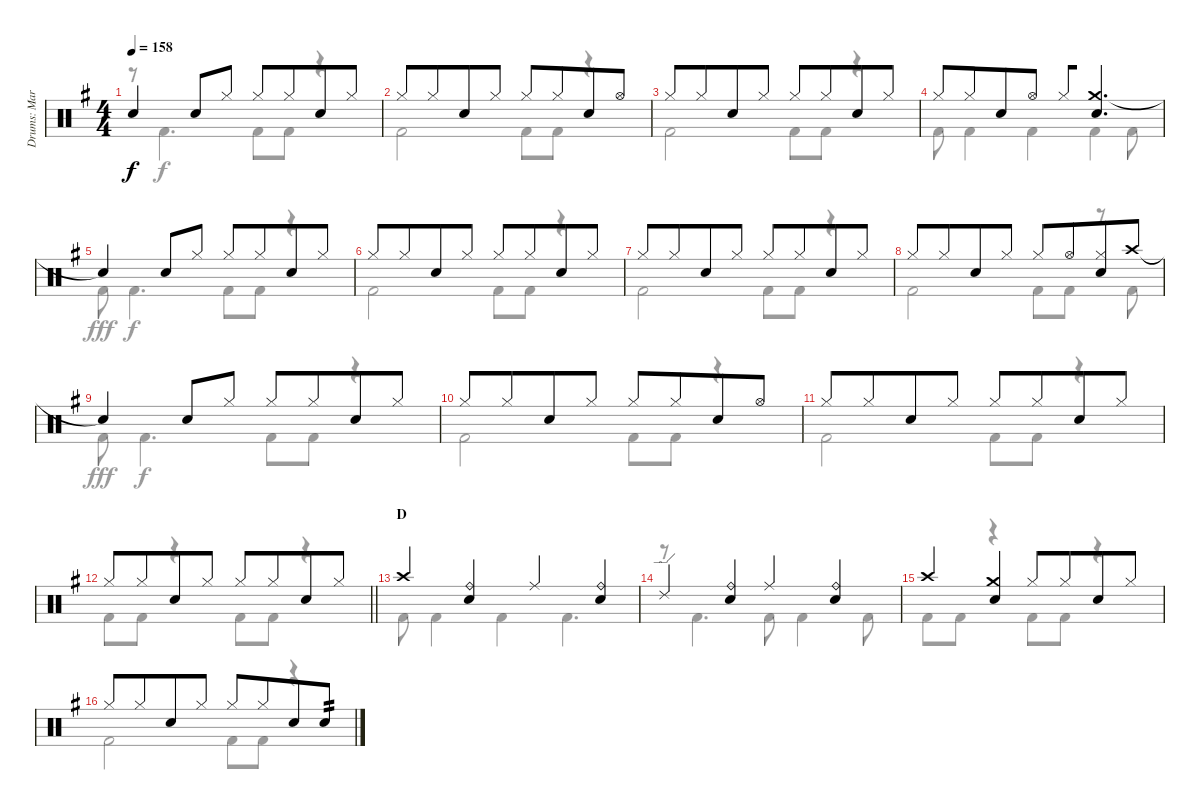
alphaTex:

\track ("Drums: Mark" "Drums: Mar") {instrument percussion}
\staff {score}
\articulation defaults
\voice
\ts (4 4)
\tempo 158
\clef neutral
\ks g "Snare (hit)"{t}.4{dy f} "Snare (hit) 2".8 "Hi-Hat (closed)".8 "Hi-Hat (closed)".8 "Hi-Hat (closed)".8{beam merge} "Snare (hit) 2".8 "Hi-Hat (closed)".8
|
"Hi-Hat (closed)".8 "Hi-Hat (closed)".8{beam merge} "Snare (hit) 2".8 "Hi-Hat (closed)".8 "Hi-Hat (closed)".8 "Hi-Hat (closed)".8{beam merge} "Snare (hit) 2".8 "Hi-Hat (open)".8 |
"Hi-Hat (closed)".8 "Hi-Hat (closed)".8{beam merge} "Snare (hit) 2".8 "Hi-Hat (closed)".8 "Hi-Hat (closed)".8 "Hi-Hat (closed)".8{beam merge} "Snare (hit) 2".8 "Hi-Hat (closed)".8 |
"Hi-Hat (closed)".8 "Hi-Hat (closed)".8{beam merge} "Snare (hit) 2".8 "Hi-Hat (open)".8 "Hi-Hat (closed)".8{beam merge} ("Crash medium (hit)" "Snare (hit) 2").4{d} |
"Snare (hit)"{t}.4 "Snare (hit) 2".8 "Hi-Hat (closed)".8 "Hi-Hat (closed)".8 "Hi-Hat (closed)".8{beam merge} "Snare (hit) 2".8 "Hi-Hat (closed)".8 |
"Hi-Hat (closed)".8 "Hi-Hat (closed)".8{beam merge} "Snare (hit) 2".8 "Hi-Hat (closed)".8 "Hi-Hat (closed)".8 "Hi-Hat (closed)".8{beam merge} "Snare (hit) 2".8 "Hi-Hat (closed)".8 |
"Hi-Hat (closed)".8 "Hi-Hat (closed)".8{beam merge} "Snare (hit) 2".8 "Hi-Hat (closed)".8 "Hi-Hat (closed)".8 "Hi-Hat (closed)".8{beam merge} "Snare (hit) 2".8 "Hi-Hat (closed)".8 |
"Hi-Hat (closed)".8 "Hi-Hat (closed)".8{beam merge} "Snare (hit) 2".8 "Hi-Hat (closed)".8 "Hi-Hat (closed)".8 "Hi-Hat (open)".8{beam merge} ("Hi-Hat (closed)" "Snare (hit) 2").8 "Crash high (hit)".8 |
"Snare (hit)"{t}.4 "Snare (hit) 2".8 "Hi-Hat (closed)".8 "Hi-Hat (closed)".8 "Hi-Hat (closed)".8{beam merge} "Snare (hit) 2".8 "Hi-Hat (closed)".8 |
"Hi-Hat (closed)".8 "Hi-Hat (closed)".8{beam merge} "Snare (hit) 2".8 "Hi-Hat (closed)".8 "Hi-Hat (closed)".8 "Hi-Hat (closed)".8{beam merge} "Snare (hit) 2".8 "Hi-Hat (open)".8 |
"Hi-Hat (closed)".8 "Hi-Hat (closed)".8{beam merge} "Snare (hit) 2".8 "Hi-Hat (closed)".8 "Hi-Hat (closed)".8 "Hi-Hat (closed)".8{beam merge} "Snare (hit) 2".8 "Hi-Hat (closed)".8 |
\barLineRight lightlight "Hi-Hat (closed)".8 "Hi-Hat (closed)".8{beam merge} "Snare (hit) 2".8 "Hi-Hat (closed)".8 "Hi-Hat (closed)".8 "Hi-Hat (closed)".8{beam merge} "Snare (hit) 2".8 "Hi-Hat (closed)".8
|
\section ("" "D")
"Crash high (hit)".4 ("Ride (bell)" "Snare (hit) 2").4 "Ride (middle)".4 ("Ride (bell)" "Snare (hit) 2").4 |
"Ride (edge) 2".4 ("Ride (bell)" "Snare (hit) 2").4 "Ride (middle)".4 ("Ride (bell)" "Snare (hit) 2").4 |
"Crash high (hit)".4 ("Crash medium (hit)" "Snare (hit) 2").4 "Hi-Hat (closed)".8 "Hi-Hat (closed)".8{beam merge} "Snare (hit) 2".8 "Hi-Hat (closed)".8 |
"Hi-Hat (closed)".8 "Hi-Hat (closed)".8{beam merge} "Snare (hit) 2".8 "Hi-Hat (closed)".8 "Hi-Hat (closed)".8 "Hi-Hat (closed)".8{beam merge} "Snare (hit) 2".8 "Electric Snare (hit)".8{tp 2}
\voice
\clef neutral
\ottava regular
\simile none
\ks g
r.8{dy f} "Kick (hit) 2".4{d} "Kick (hit) 2".8 "Kick (hit) 2".8 r.4 |
"Kick (hit) 2".2 "Kick (hit) 2".8 "Kick (hit) 2".8 r.4 |
"Kick (hit) 2".2 "Kick (hit) 2".8 "Kick (hit) 2".8 r.4 |
"Kick (hit) 2".8 "Kick (hit) 2".4 "Kick (hit) 2".4 "Kick (hit) 2".4 "Kick (hit) 2".8 |
"Kick (hit) 2".8{dy fff} "Kick (hit) 2".4{d dy f} "Kick (hit) 2".8 "Kick (hit) 2".8 r.4 |
"Kick (hit) 2".2 "Kick (hit) 2".8 "Kick (hit) 2".8 r.4 |
"Kick (hit) 2".2 "Kick (hit) 2".8 "Kick (hit) 2".8 r.4 |
"Kick (hit) 2".2 "Kick (hit) 2".8 "Kick (hit) 2".8 r.8 "Kick (hit) 2".8 |
"Kick (hit) 2".8{dy fff} "Kick (hit) 2".4{d dy f} "Kick (hit) 2".8 "Kick (hit) 2".8 r.4 |
"Kick (hit) 2".2 "Kick (hit) 2".8 "Kick (hit) 2".8 r.4 |
"Kick (hit) 2".2 "Kick (hit) 2".8 "Kick (hit) 2".8 r.4 |
\barLineRight lightlight "Kick (hit) 2".8 "Kick (hit) 2".8
r.4 "Kick (hit) 2".8 "Kick (hit) 2".8 r.4 |
"Kick (hit) 2".8 "Kick (hit) 2".4 "Kick (hit) 2".4 "Kick (hit) 2".4{d} |
r.8 "Kick (hit) 2".4{d} "Kick (hit) 2".8 "Kick (hit) 2".4 "Kick (hit) 2".8 |
"Kick (hit) 2".8 "Kick (hit) 2".8 r.4 "Kick (hit) 2".8 "Kick (hit) 2".8 r.4 |
"Kick (hit) 2".2 "Kick (hit) 2".8 "Kick (hit) 2".8 r.4
